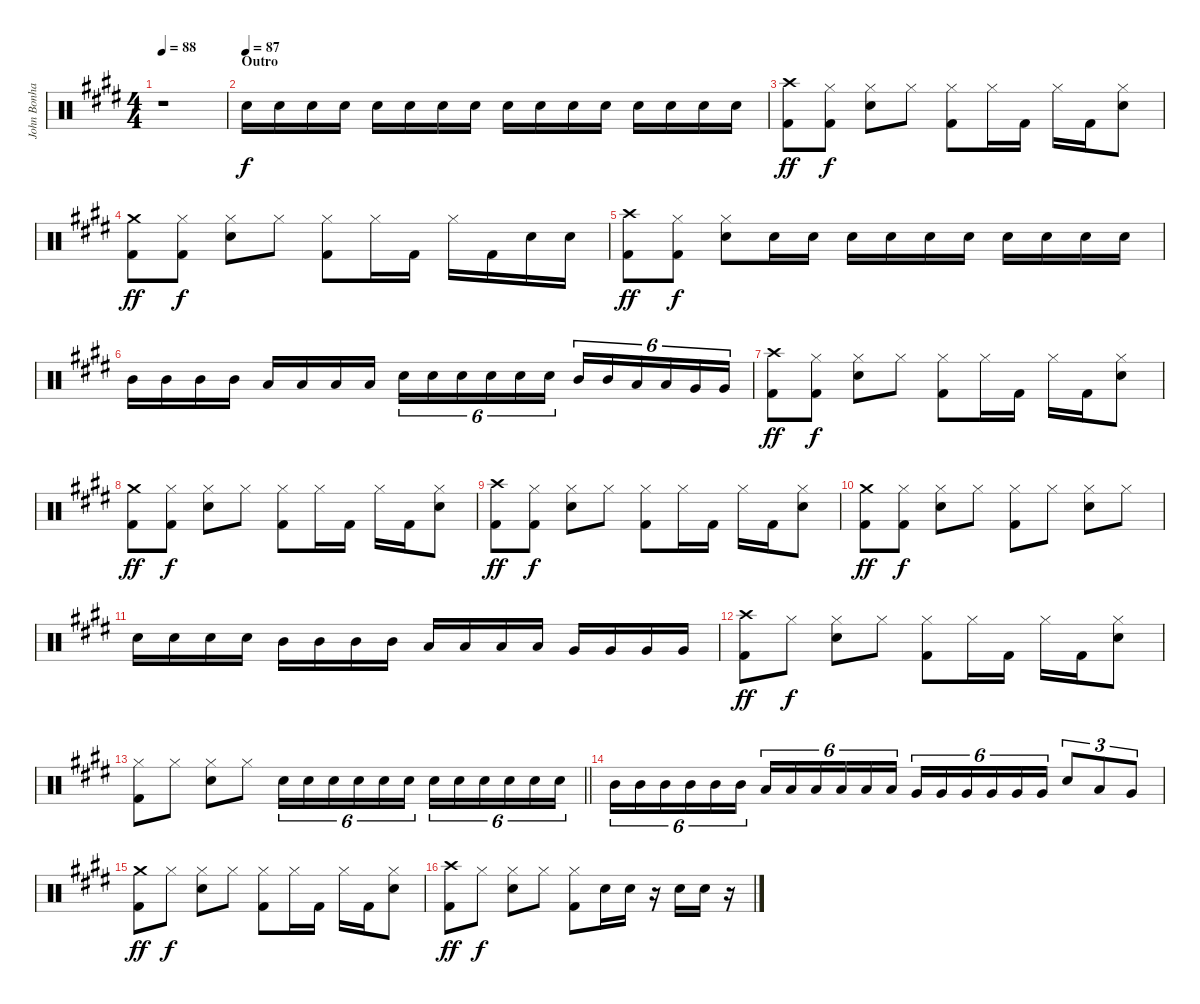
\track ("John Bonham Drums" "John Bonha") {instrument percussion}
\staff {score}
\articulation defaults
\ts (4 4)
\tempo 88
\clef neutral
\ks e
r.1{dy f} |
\section ("" "Outro")
\tempo (87)
"Snare (hit) 2".16 "Snare (hit) 2".16 "Snare (hit) 2".16 "Snare (hit) 2".16 "Snare (hit) 2".16 "Snare (hit) 2".16 "Snare (hit) 2".16 "Snare (hit) 2".16 "Snare (hit) 2".16 "Snare (hit) 2".16 "Snare (hit) 2".16 "Snare (hit) 2".16 "Snare (hit) 2".16 "Snare (hit) 2".16 "Snare (hit) 2".16 "Snare (hit) 2".16 |
("Crash high (hit)" "Kick (hit) 2").8{dy ff} ("Hi-Hat (closed)" "Kick (hit) 2").8{dy f} ("Hi-Hat (closed)" "Snare (hit) 2").8 "Hi-Hat (closed)".8 ("Hi-Hat (closed)" "Kick (hit) 2").8 "Hi-Hat (closed)".16 "Kick (hit) 2".16 "Hi-Hat (closed)".16 "Kick (hit) 2".16 ("Hi-Hat (closed)" "Snare (hit) 2").8 |
("Crash medium (hit)" "Kick (hit) 2").8{dy ff} ("Hi-Hat (closed)" "Kick (hit) 2").8{dy f} ("Hi-Hat (closed)" "Snare (hit) 2").8 "Hi-Hat (closed)".8 ("Hi-Hat (closed)" "Kick (hit) 2").8 "Hi-Hat (closed)".16 "Kick (hit) 2".16 "Hi-Hat (closed)".16 "Kick (hit) 2".16 "Snare (hit) 2".16 "Snare (hit) 2".16 |
("Crash high (hit)" "Kick (hit) 2").8{dy ff} ("Hi-Hat (closed)" "Kick (hit) 2").8{dy f} ("Hi-Hat (closed)" "Snare (hit) 2").8 "Snare (hit) 2".16 "Snare (hit) 2".16 "Snare (hit) 2".16 "Snare (hit) 2".16 "Snare (hit) 2".16 "Snare (hit) 2".16 "Snare (hit) 2".16 "Snare (hit) 2".16 "Snare (hit) 2".16 "Snare (hit) 2".16 |
"Mid Tom (hit)".16 "Mid Tom (hit)".16 "Mid Tom (hit)".16 "Mid Tom (hit)".16 "Low Tom (hit)".16 "Low Tom (hit)".16 "Low Tom (hit)".16 "Low Tom (hit)".16 "Snare (hit) 2".16{tu (6 4)} "Snare (hit) 2".16{tu (6 4)} "Snare (hit) 2".16{tu (6 4)} "Snare (hit) 2".16{tu (6 4)} "Snare (hit) 2".16{tu (6 4)} "Snare (hit) 2".16{tu (6 4)} "Mid Tom (hit)".16{tu (6 4)} "Mid Tom (hit)".16{tu (6 4)} "Low Tom (hit)".16{tu (6 4)} "Low Tom (hit)".16{tu (6 4)} "Very Low Tom (hit)".16{tu (6 4)} "Very Low Tom (hit)".16{tu (6 4)} |
("Crash high (hit)" "Kick (hit) 2").8{dy ff} ("Hi-Hat (closed)" "Kick (hit) 2").8{dy f} ("Hi-Hat (closed)" "Snare (hit) 2").8 "Hi-Hat (closed)".8 ("Hi-Hat (closed)" "Kick (hit) 2").8 "Hi-Hat (closed)".16 "Kick (hit) 2".16 "Hi-Hat (closed)".16 "Kick (hit) 2".16 ("Hi-Hat (closed)" "Snare (hit) 2").8 |
("Crash medium (hit)" "Kick (hit) 2").8{dy ff} ("Hi-Hat (closed)" "Kick (hit) 2").8{dy f} ("Hi-Hat (closed)" "Snare (hit) 2").8 "Hi-Hat (closed)".8 ("Hi-Hat (closed)" "Kick (hit) 2").8 "Hi-Hat (closed)".16 "Kick (hit) 2".16 "Hi-Hat (closed)".16 "Kick (hit) 2".16 ("Hi-Hat (closed)" "Snare (hit) 2").8 |
("Crash high (hit)" "Kick (hit) 2").8{dy ff} ("Hi-Hat (closed)" "Kick (hit) 2").8{dy f} ("Hi-Hat (closed)" "Snare (hit) 2").8 "Hi-Hat (closed)".8 ("Hi-Hat (closed)" "Kick (hit) 2").8 "Hi-Hat (closed)".16 "Kick (hit) 2".16 "Hi-Hat (closed)".16 "Kick (hit) 2".16 ("Hi-Hat (closed)" "Snare (hit) 2").8 |
("Crash medium (hit)" "Kick (hit) 2").8{dy ff} ("Hi-Hat (closed)" "Kick (hit) 2").8{dy f} ("Hi-Hat (closed)" "Snare (hit) 2").8 "Hi-Hat (closed)".8 ("Hi-Hat (closed)" "Kick (hit) 2").8 "Hi-Hat (closed)".8 ("Hi-Hat (closed)" "Snare (hit) 2").8 "Hi-Hat (closed)".8 |
"Snare (hit) 2".16 "Snare (hit) 2".16 "Snare (hit) 2".16 "Snare (hit) 2".16 "Mid Tom (hit)".16 "Mid Tom (hit)".16 "Mid Tom (hit)".16 "Mid Tom (hit)".16 "Low Tom (hit)".16 "Low Tom (hit)".16 "Low Tom (hit)".16 "Low Tom (hit)".16 "Very Low Tom (hit)".16 "Very Low Tom (hit)".16 "Very Low Tom (hit)".16 "Very Low Tom (hit)".16 |
("Crash high (hit)" "Kick (hit) 2").8{dy ff} "Hi-Hat (closed)".8{dy f} ("Hi-Hat (closed)" "Snare (hit) 2").8 "Hi-Hat (closed)".8 ("Hi-Hat (closed)" "Kick (hit) 2").8 "Hi-Hat (closed)".16 "Kick (hit) 2".16 "Hi-Hat (closed)".16 "Kick (hit) 2".16 ("Hi-Hat (closed)" "Snare (hit) 2").8 |
\barLineRight lightlight
("Hi-Hat (closed)" "Kick (hit) 2").8 "Hi-Hat (closed)".8 ("Hi-Hat (closed)" "Snare (hit) 2").8 "Hi-Hat (closed)".8 "Snare (hit) 2".16{tu (6 4)} "Snare (hit) 2".16{tu (6 4)} "Snare (hit) 2".16{tu (6 4)} "Snare (hit) 2".16{tu (6 4)} "Snare (hit) 2".16{tu (6 4)} "Snare (hit) 2".16{tu (6 4)} "Snare (hit) 2".16{tu (6 4)} "Snare (hit) 2".16{tu (6 4)} "Snare (hit) 2".16{tu (6 4)} "Snare (hit) 2".16{tu (6 4)} "Snare (hit) 2".16{tu (6 4)} "Snare (hit) 2".16{tu (6 4)} |
"Mid Tom (hit)".16{tu (6 4)} "Mid Tom (hit)".16{tu (6 4)} "Mid Tom (hit)".16{tu (6 4)} "Mid Tom (hit)".16{tu (6 4)} "Mid Tom (hit)".16{tu (6 4)} "Mid Tom (hit)".16{tu (6 4)} "Low Tom (hit)".16{tu (6 4)} "Low Tom (hit)".16{tu (6 4)} "Low Tom (hit)".16{tu (6 4)} "Low Tom (hit)".16{tu (6 4)} "Low Tom (hit)".16{tu (6 4)} "Low Tom (hit)".16{tu (6 4)} "Very Low Tom (hit)".16{tu (6 4)} "Very Low Tom (hit)".16{tu (6 4)} "Very Low Tom (hit)".16{tu (6 4)} "Very Low Tom (hit)".16{tu (6 4)} "Very Low Tom (hit)".16{tu (6 4)} "Very Low Tom (hit)".16{tu (6 4)} "Snare (hit) 2".8{tu (3 2)} "Low Tom (hit)".8{tu (3 2)} "Very Low Tom (hit)".8{tu (3 2)} |
("Crash medium (hit)" "Kick (hit) 2").8{dy ff} "Hi-Hat (closed)".8{dy f} ("Hi-Hat (closed)" "Snare (hit) 2").8 "Hi-Hat (closed)".8 ("Hi-Hat (closed)" "Kick (hit) 2").8 "Hi-Hat (closed)".16 "Kick (hit) 2".16 "Hi-Hat (closed)".16 "Kick (hit) 2".16 ("Hi-Hat (closed)" "Snare (hit) 2").8 |
("Crash high (hit)" "Kick (hit) 2").8{dy ff} "Hi-Hat (closed)".8{dy f} ("Hi-Hat (closed)" "Snare (hit) 2").8 "Hi-Hat (closed)".8 ("Hi-Hat (closed)" "Kick (hit) 2").8 "Snare (hit) 2".16 "Snare (hit) 2".16 r.16 "Snare (hit) 2".16 "Snare (hit) 2".16 r.16
